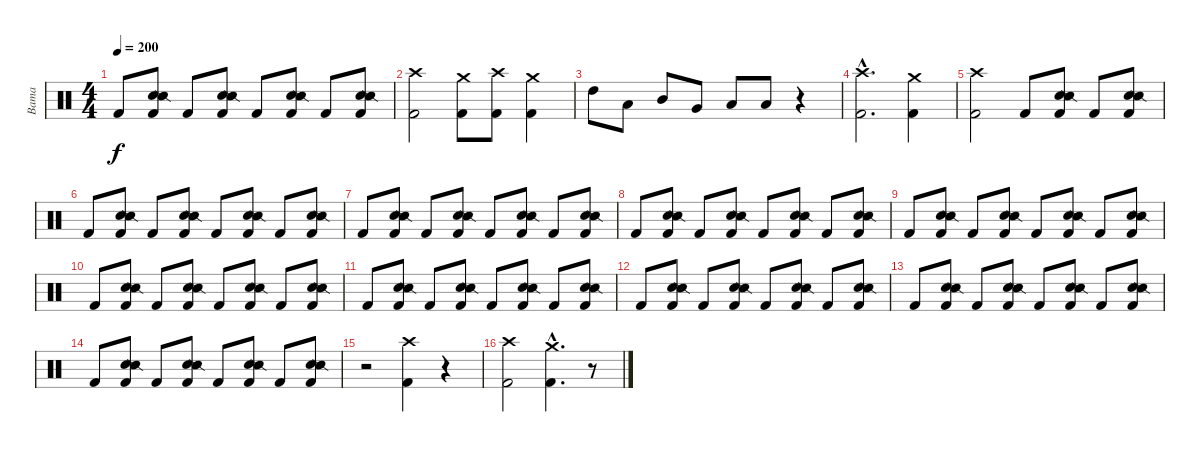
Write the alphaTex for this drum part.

\track ("Bama" "Bama") {instrument percussion}
\staff {score}
\articulation defaults
\ts (4 4)
\tempo 200
\clef neutral
\ks c "Kick (hit) 2".8{dy f}
("Electric Snare (hit)" "Snare (side stick) 2" "Kick (hit) 2").8 "Kick (hit) 2".8 ("Electric Snare (hit)" "Snare (side stick) 2" "Kick (hit) 2").8 "Kick (hit) 2".8 ("Electric Snare (hit)" "Snare (side stick) 2" "Kick (hit) 2").8 "Kick (hit) 2".8 ("Electric Snare (hit)" "Snare (side stick) 2" "Kick (hit) 2").8 |
("Crash high (hit)" "Kick (hit) 2").2 ("Crash medium (hit)" "Kick (hit) 2").8 ("Crash high (hit)" "Kick (hit) 2").8 ("Crash medium (hit)" "Kick (hit) 2").4 |
"High Tom (hit)".8 "Low Tom (hit)".8 "Mid Tom (hit)".8 "Very Low Tom (hit)".8 "Low Tom (hit)".8 "Low Floor Tom (hit)".8 r.4 |
("Crash high (hit)"{hac} "Kick (hit) 2"{hac}).2{d} ("Crash medium (hit)" "Kick (hit) 2").4 |
("Crash high (hit)" "Kick (hit) 2").2 "Kick (hit) 2".8 ("Electric Snare (hit)" "Snare (side stick) 2" "Kick (hit) 2").8 "Kick (hit) 2".8 ("Electric Snare (hit)" "Snare (side stick) 2" "Kick (hit) 2").8 |
"Kick (hit) 2".8 ("Electric Snare (hit)" "Snare (side stick) 2" "Kick (hit) 2").8 "Kick (hit) 2".8 ("Electric Snare (hit)" "Snare (side stick) 2" "Kick (hit) 2").8 "Kick (hit) 2".8 ("Electric Snare (hit)" "Snare (side stick) 2" "Kick (hit) 2").8 "Kick (hit) 2".8 ("Electric Snare (hit)" "Snare (side stick) 2" "Kick (hit) 2").8 |
"Kick (hit) 2".8 ("Electric Snare (hit)" "Snare (side stick) 2" "Kick (hit) 2").8 "Kick (hit) 2".8 ("Electric Snare (hit)" "Snare (side stick) 2" "Kick (hit) 2").8 "Kick (hit) 2".8 ("Electric Snare (hit)" "Snare (side stick) 2" "Kick (hit) 2").8 "Kick (hit) 2".8 ("Electric Snare (hit)" "Snare (side stick) 2" "Kick (hit) 2").8 |
"Kick (hit) 2".8 ("Electric Snare (hit)" "Snare (side stick) 2" "Kick (hit) 2").8 "Kick (hit) 2".8 ("Electric Snare (hit)" "Snare (side stick) 2" "Kick (hit) 2").8 "Kick (hit) 2".8 ("Electric Snare (hit)" "Snare (side stick) 2" "Kick (hit) 2").8 "Kick (hit) 2".8 ("Electric Snare (hit)" "Snare (side stick) 2" "Kick (hit) 2").8 |
"Kick (hit) 2".8 ("Electric Snare (hit)" "Snare (side stick) 2" "Kick (hit) 2").8 "Kick (hit) 2".8 ("Electric Snare (hit)" "Snare (side stick) 2" "Kick (hit) 2").8 "Kick (hit) 2".8 ("Electric Snare (hit)" "Snare (side stick) 2" "Kick (hit) 2").8 "Kick (hit) 2".8 ("Electric Snare (hit)" "Snare (side stick) 2" "Kick (hit) 2").8 |
"Kick (hit) 2".8 ("Electric Snare (hit)" "Snare (side stick) 2" "Kick (hit) 2").8 "Kick (hit) 2".8 ("Electric Snare (hit)" "Snare (side stick) 2" "Kick (hit) 2").8 "Kick (hit) 2".8 ("Electric Snare (hit)" "Snare (side stick) 2" "Kick (hit) 2").8 "Kick (hit) 2".8 ("Electric Snare (hit)" "Snare (side stick) 2" "Kick (hit) 2").8 |
"Kick (hit) 2".8 ("Electric Snare (hit)" "Snare (side stick) 2" "Kick (hit) 2").8 "Kick (hit) 2".8 ("Electric Snare (hit)" "Snare (side stick) 2" "Kick (hit) 2").8 "Kick (hit) 2".8 ("Electric Snare (hit)" "Snare (side stick) 2" "Kick (hit) 2").8 "Kick (hit) 2".8 ("Electric Snare (hit)" "Snare (side stick) 2" "Kick (hit) 2").8 |
"Kick (hit) 2".8 ("Electric Snare (hit)" "Snare (side stick) 2" "Kick (hit) 2").8 "Kick (hit) 2".8 ("Electric Snare (hit)" "Snare (side stick) 2" "Kick (hit) 2").8 "Kick (hit) 2".8 ("Electric Snare (hit)" "Snare (side stick) 2" "Kick (hit) 2").8 "Kick (hit) 2".8 ("Electric Snare (hit)" "Snare (side stick) 2" "Kick (hit) 2").8 |
"Kick (hit) 2".8 ("Electric Snare (hit)" "Snare (side stick) 2" "Kick (hit) 2").8 "Kick (hit) 2".8 ("Electric Snare (hit)" "Snare (side stick) 2" "Kick (hit) 2").8 "Kick (hit) 2".8 ("Electric Snare (hit)" "Snare (side stick) 2" "Kick (hit) 2").8 "Kick (hit) 2".8 ("Electric Snare (hit)" "Snare (side stick) 2" "Kick (hit) 2").8 |
"Kick (hit) 2".8 ("Electric Snare (hit)" "Snare (side stick) 2" "Kick (hit) 2").8 "Kick (hit) 2".8 ("Electric Snare (hit)" "Snare (side stick) 2" "Kick (hit) 2").8 "Kick (hit) 2".8 ("Electric Snare (hit)" "Snare (side stick) 2" "Kick (hit) 2").8 "Kick (hit) 2".8 ("Electric Snare (hit)" "Snare (side stick) 2" "Kick (hit) 2").8 |
r.2 ("Crash high (hit)" "Kick (hit) 2").4 r.4 |
("Crash high (hit)" "Kick (hit) 2").2 ("Crash medium (hit)"{hac} "Kick (hit) 2"{hac}).4{d} r.8
